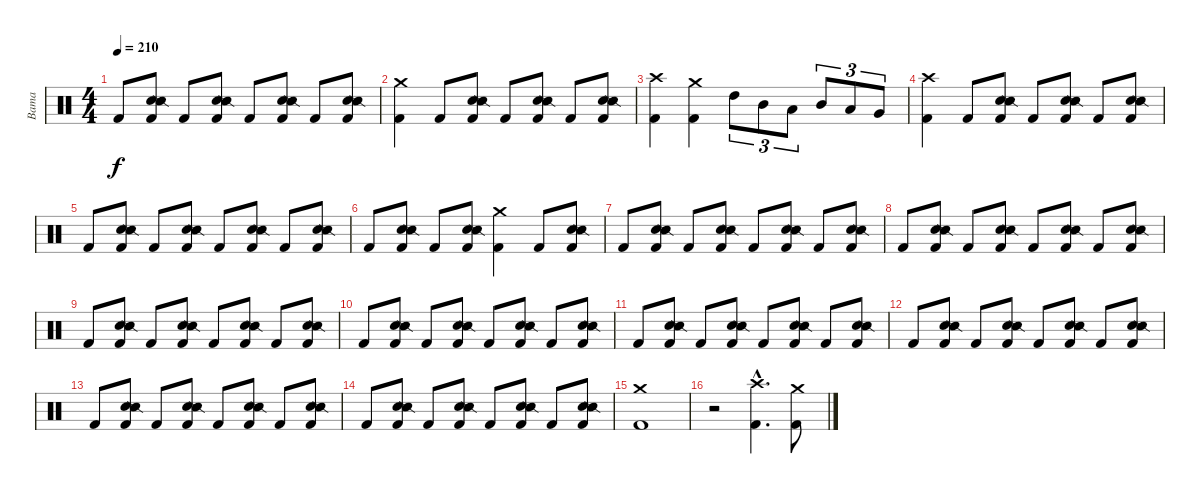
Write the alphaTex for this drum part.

\track ("Bama" "Bama") {instrument percussion}
\staff {score}
\articulation defaults
\ts (4 4)
\tempo 210
\clef neutral
\ks c "Kick (hit) 2".8{dy f}
("Electric Snare (hit)" "Snare (side stick) 2" "Kick (hit) 2").8 "Kick (hit) 2".8 ("Electric Snare (hit)" "Snare (side stick) 2" "Kick (hit) 2").8 "Kick (hit) 2".8 ("Electric Snare (hit)" "Snare (side stick) 2" "Kick (hit) 2").8 "Kick (hit) 2".8 ("Electric Snare (hit)" "Snare (side stick) 2" "Kick (hit) 2").8 |
("Crash medium (hit)" "Kick (hit) 2").4 "Kick (hit) 2".8 ("Electric Snare (hit)" "Snare (side stick) 2" "Kick (hit) 2").8 "Kick (hit) 2".8 ("Electric Snare (hit)" "Snare (side stick) 2" "Kick (hit) 2").8 "Kick (hit) 2".8 ("Electric Snare (hit)" "Snare (side stick) 2" "Kick (hit) 2").8 |
("Crash high (hit)" "Kick (hit) 2").4 ("Crash medium (hit)" "Kick (hit) 2").4 "High Tom (hit)".8{tu (3 2)} "Mid Tom (hit)".8{tu (3 2)} "Low Tom (hit)".8{tu (3 2)} "Mid Tom (hit)".8{tu (3 2)} "Low Tom (hit)".8{tu (3 2)} "Very Low Tom (hit)".8{tu (3 2)} |
("Crash high (hit)" "Kick (hit) 2").4 "Kick (hit) 2".8 ("Electric Snare (hit)" "Snare (side stick) 2" "Kick (hit) 2").8 "Kick (hit) 2".8 ("Electric Snare (hit)" "Snare (side stick) 2" "Kick (hit) 2").8 "Kick (hit) 2".8 ("Electric Snare (hit)" "Snare (side stick) 2" "Kick (hit) 2").8 |
"Kick (hit) 2".8 ("Electric Snare (hit)" "Snare (side stick) 2" "Kick (hit) 2").8 "Kick (hit) 2".8 ("Electric Snare (hit)" "Snare (side stick) 2" "Kick (hit) 2").8 "Kick (hit) 2".8 ("Electric Snare (hit)" "Snare (side stick) 2" "Kick (hit) 2").8 "Kick (hit) 2".8 ("Electric Snare (hit)" "Snare (side stick) 2" "Kick (hit) 2").8 |
"Kick (hit) 2".8 ("Electric Snare (hit)" "Snare (side stick) 2" "Kick (hit) 2").8 "Kick (hit) 2".8 ("Electric Snare (hit)" "Snare (side stick) 2" "Kick (hit) 2").8 ("Crash medium (hit)" "Kick (hit) 2").4 "Kick (hit) 2".8 ("Electric Snare (hit)" "Snare (side stick) 2" "Kick (hit) 2").8 |
"Kick (hit) 2".8 ("Electric Snare (hit)" "Snare (side stick) 2" "Kick (hit) 2").8 "Kick (hit) 2".8 ("Electric Snare (hit)" "Snare (side stick) 2" "Kick (hit) 2").8 "Kick (hit) 2".8 ("Electric Snare (hit)" "Snare (side stick) 2" "Kick (hit) 2").8 "Kick (hit) 2".8 ("Electric Snare (hit)" "Snare (side stick) 2" "Kick (hit) 2").8 |
"Kick (hit) 2".8 ("Electric Snare (hit)" "Snare (side stick) 2" "Kick (hit) 2").8 "Kick (hit) 2".8 ("Electric Snare (hit)" "Snare (side stick) 2" "Kick (hit) 2").8 "Kick (hit) 2".8 ("Electric Snare (hit)" "Snare (side stick) 2" "Kick (hit) 2").8 "Kick (hit) 2".8 ("Electric Snare (hit)" "Snare (side stick) 2" "Kick (hit) 2").8 |
"Kick (hit) 2".8 ("Electric Snare (hit)" "Snare (side stick) 2" "Kick (hit) 2").8 "Kick (hit) 2".8 ("Electric Snare (hit)" "Snare (side stick) 2" "Kick (hit) 2").8 "Kick (hit) 2".8 ("Electric Snare (hit)" "Snare (side stick) 2" "Kick (hit) 2").8 "Kick (hit) 2".8 ("Electric Snare (hit)" "Snare (side stick) 2" "Kick (hit) 2").8 |
"Kick (hit) 2".8 ("Electric Snare (hit)" "Snare (side stick) 2" "Kick (hit) 2").8 "Kick (hit) 2".8 ("Electric Snare (hit)" "Snare (side stick) 2" "Kick (hit) 2").8 "Kick (hit) 2".8 ("Electric Snare (hit)" "Snare (side stick) 2" "Kick (hit) 2").8 "Kick (hit) 2".8 ("Electric Snare (hit)" "Snare (side stick) 2" "Kick (hit) 2").8 |
"Kick (hit) 2".8 ("Electric Snare (hit)" "Snare (side stick) 2" "Kick (hit) 2").8 "Kick (hit) 2".8 ("Electric Snare (hit)" "Snare (side stick) 2" "Kick (hit) 2").8 "Kick (hit) 2".8 ("Electric Snare (hit)" "Snare (side stick) 2" "Kick (hit) 2").8 "Kick (hit) 2".8 ("Electric Snare (hit)" "Snare (side stick) 2" "Kick (hit) 2").8 |
"Kick (hit) 2".8 ("Electric Snare (hit)" "Snare (side stick) 2" "Kick (hit) 2").8 "Kick (hit) 2".8 ("Electric Snare (hit)" "Snare (side stick) 2" "Kick (hit) 2").8 "Kick (hit) 2".8 ("Electric Snare (hit)" "Snare (side stick) 2" "Kick (hit) 2").8 "Kick (hit) 2".8 ("Electric Snare (hit)" "Snare (side stick) 2" "Kick (hit) 2").8 |
"Kick (hit) 2".8 ("Electric Snare (hit)" "Snare (side stick) 2" "Kick (hit) 2").8 "Kick (hit) 2".8 ("Electric Snare (hit)" "Snare (side stick) 2" "Kick (hit) 2").8 "Kick (hit) 2".8 ("Electric Snare (hit)" "Snare (side stick) 2" "Kick (hit) 2").8 "Kick (hit) 2".8 ("Electric Snare (hit)" "Snare (side stick) 2" "Kick (hit) 2").8 |
"Kick (hit) 2".8 ("Electric Snare (hit)" "Snare (side stick) 2" "Kick (hit) 2").8 "Kick (hit) 2".8 ("Electric Snare (hit)" "Snare (side stick) 2" "Kick (hit) 2").8 "Kick (hit) 2".8 ("Electric Snare (hit)" "Snare (side stick) 2" "Kick (hit) 2").8 "Kick (hit) 2".8 ("Electric Snare (hit)" "Snare (side stick) 2" "Kick (hit) 2").8 |
("Crash medium (hit)" "Kick (hit) 2").1 |
r.2 ("Crash high (hit)"{hac} "Kick (hit) 2"{hac}).4{d} ("Crash medium (hit)" "Kick (hit) 2").8
